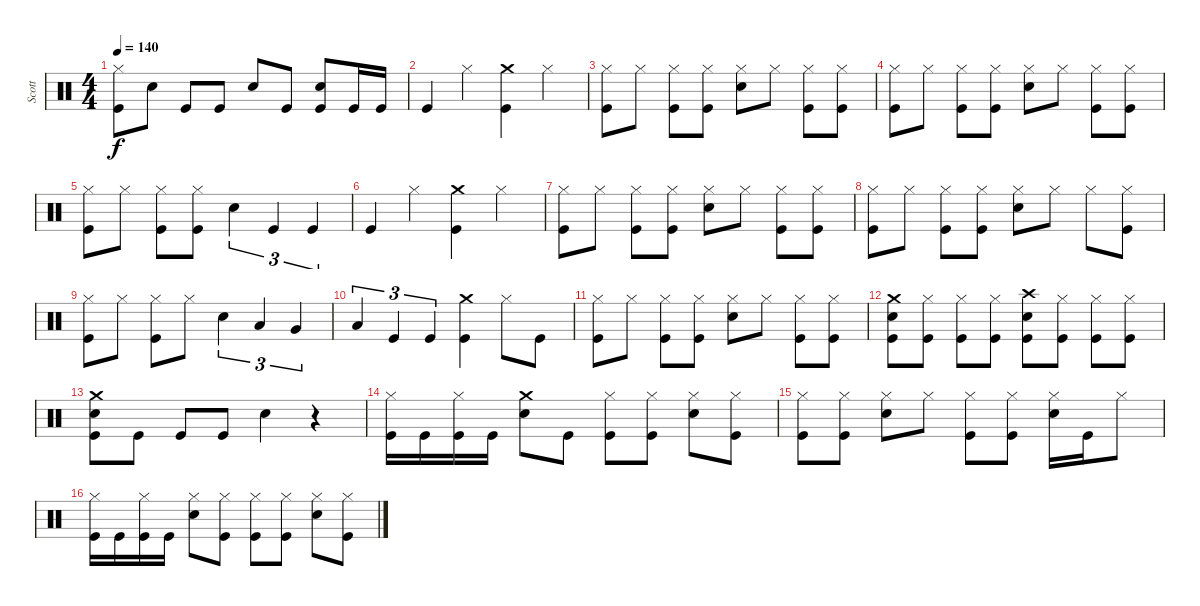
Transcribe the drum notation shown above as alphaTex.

\track ("Scott" "Scott") {instrument percussion}
\staff {score}
\articulation defaults
\ts (4 4)
\tempo 140
\clef neutral
\ks c
("Kick (hit)" "Hi-Hat (closed)").8{dy f} "Snare (hit) 2".8 "Kick (hit)".8 "Kick (hit)".8 "Snare (hit) 2".8 "Kick (hit)".8 ("Kick (hit)" "Snare (hit) 2").8 "Kick (hit)".16 "Kick (hit)".16 |
"Kick (hit)".4 "Hi-Hat (closed)".4 ("Kick (hit)" "Crash medium (hit)").4 "Hi-Hat (closed)".4 |
("Kick (hit)" "Hi-Hat (closed)").8 "Hi-Hat (closed)".8 ("Kick (hit)" "Hi-Hat (closed)").8 ("Kick (hit)" "Hi-Hat (closed)").8 ("Snare (hit) 2" "Hi-Hat (closed)").8 "Hi-Hat (closed)".8 ("Kick (hit)" "Hi-Hat (closed)").8 ("Kick (hit)" "Hi-Hat (closed)").8 |
("Kick (hit)" "Hi-Hat (closed)").8 "Hi-Hat (closed)".8 ("Kick (hit)" "Hi-Hat (closed)").8 ("Kick (hit)" "Hi-Hat (closed)").8 ("Snare (hit) 2" "Hi-Hat (closed)").8 "Hi-Hat (closed)".8 ("Kick (hit)" "Hi-Hat (closed)").8 ("Kick (hit)" "Hi-Hat (closed)").8 |
("Kick (hit)" "Hi-Hat (closed)").8 "Hi-Hat (closed)".8 ("Kick (hit)" "Hi-Hat (closed)").8 ("Kick (hit)" "Hi-Hat (closed)").8 "Snare (hit) 2".4{tu (3 2)} "Kick (hit)".4{tu (3 2)} "Kick (hit)".4{tu (3 2)} |
"Kick (hit)".4 "Hi-Hat (closed)".4 ("Kick (hit)" "Crash medium (hit)").4 "Hi-Hat (closed)".4 |
("Kick (hit)" "Hi-Hat (closed)").8 "Hi-Hat (closed)".8 ("Kick (hit)" "Hi-Hat (closed)").8 ("Kick (hit)" "Hi-Hat (closed)").8 ("Snare (hit) 2" "Hi-Hat (closed)").8 "Hi-Hat (closed)".8 ("Kick (hit)" "Hi-Hat (closed)").8 ("Kick (hit)" "Hi-Hat (closed)").8 |
("Kick (hit)" "Hi-Hat (closed)").8 "Hi-Hat (closed)".8 ("Kick (hit)" "Hi-Hat (closed)").8 ("Kick (hit)" "Hi-Hat (closed)").8 ("Snare (hit) 2" "Hi-Hat (closed)").8 "Hi-Hat (closed)".8 "Hi-Hat (closed)".8 ("Kick (hit)" "Hi-Hat (closed)").8 |
("Kick (hit)" "Hi-Hat (closed)").8 "Hi-Hat (closed)".8 ("Kick (hit)" "Hi-Hat (closed)").8 "Hi-Hat (closed)".8 "Snare (hit) 2".4{tu (3 2)} "Low Tom (hit)".4{tu (3 2)} "Very Low Tom (hit)".4{tu (3 2)} |
"Low Floor Tom (hit)".4{tu (3 2)} "Kick (hit)".4{tu (3 2)} "Kick (hit)".4{tu (3 2)} ("Kick (hit)" "Crash medium (hit)").4 "Hi-Hat (closed)".8 "Kick (hit)".8 |
("Kick (hit)" "Hi-Hat (closed)").8 "Hi-Hat (closed)".8 ("Kick (hit)" "Hi-Hat (closed)").8 ("Kick (hit)" "Hi-Hat (closed)").8 ("Snare (hit) 2" "Hi-Hat (closed)").8 "Hi-Hat (closed)".8 ("Kick (hit)" "Hi-Hat (closed)").8 ("Kick (hit)" "Hi-Hat (closed)").8 |
("Kick (hit)" "Snare (hit) 2" "Crash medium (hit)").8 ("Kick (hit)" "Hi-Hat (closed)").8 ("Kick (hit)" "Hi-Hat (closed)").8 ("Kick (hit)" "Hi-Hat (closed)").8 ("Kick (hit)" "Snare (hit) 2" "Crash high (hit)").8 ("Kick (hit)" "Hi-Hat (closed)").8 ("Kick (hit)" "Hi-Hat (closed)").8 ("Kick (hit)" "Hi-Hat (closed)").8 |
("Kick (hit)" "Snare (hit) 2" "Crash medium (hit)").8 "Kick (hit)".8 "Kick (hit)".8 "Kick (hit)".8 "Snare (hit) 2".4 r.4 |
("Kick (hit)" "Hi-Hat (closed)").16 "Kick (hit)".16 ("Kick (hit)" "Hi-Hat (closed)").16 "Kick (hit)".16 ("Snare (hit) 2" "Crash medium (hit)").8 "Kick (hit)".8 ("Kick (hit)" "Hi-Hat (closed)").8 ("Kick (hit)" "Hi-Hat (closed)").8 ("Snare (hit) 2" "Hi-Hat (closed)").8 ("Kick (hit)" "Hi-Hat (closed)").8 |
("Kick (hit)" "Hi-Hat (closed)").8 ("Kick (hit)" "Hi-Hat (closed)").8 ("Snare (hit) 2" "Hi-Hat (closed)").8 "Hi-Hat (closed)".8 ("Kick (hit)" "Hi-Hat (closed)").8 ("Kick (hit)" "Hi-Hat (closed)").8 ("Snare (hit) 2" "Hi-Hat (closed)").16 "Kick (hit)".16 "Hi-Hat (closed)".8 |
("Kick (hit)" "Hi-Hat (closed)").16 "Kick (hit)".16 ("Kick (hit)" "Hi-Hat (closed)").16 "Kick (hit)".16 ("Snare (hit) 2" "Hi-Hat (closed)").8 ("Kick (hit)" "Hi-Hat (closed)").8 ("Kick (hit)" "Hi-Hat (closed)").8 ("Kick (hit)" "Hi-Hat (closed)").8 ("Snare (hit) 2" "Hi-Hat (closed)").8 ("Kick (hit)" "Hi-Hat (closed)").8
